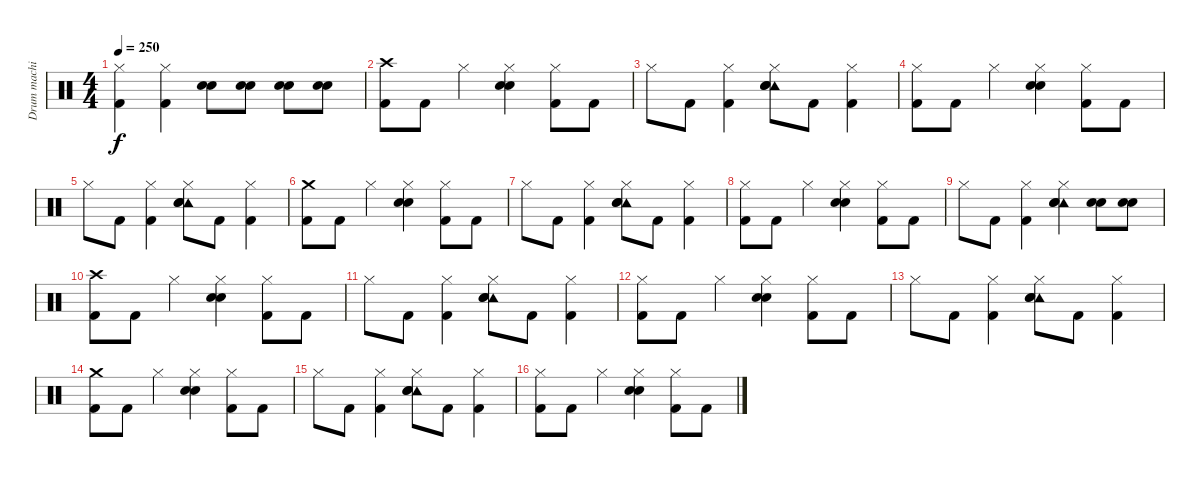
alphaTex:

\track ("Drum machine" "Drum machi") {instrument percussion}
\staff {score}
\articulation defaults
\ts (4 4)
\tempo 250
\clef neutral
\ks c
("Hi-Hat (closed)" "Kick (hit) 2").4{dy f} ("Hi-Hat (closed)" "Kick (hit) 2").4 ("Snare (hit) 2" "Electric Snare (hit)").8 ("Snare (hit) 2" "Electric Snare (hit)").8 ("Snare (hit) 2" "Electric Snare (hit)").8 ("Snare (hit) 2" "Electric Snare (hit)").8 |
("Crash high (hit)" "Kick (hit) 2").8 "Kick (hit) 2".8 "Hi-Hat (closed)".4 ("Hi-Hat (closed)" "Electric Snare (hit)" "Snare (hit) 2").4 ("Hi-Hat (closed)" "Kick (hit) 2").8 "Kick (hit) 2".8 |
"Hi-Hat (closed)".8 "Kick (hit) 2".8 ("Hi-Hat (closed)" "Kick (hit) 2").4 ("Tambourine (hit)" "Hi-Hat (closed)" "Electric Snare (hit)" "Snare (hit) 2").8 "Kick (hit) 2".8 ("Hi-Hat (closed)" "Kick (hit) 2").4 |
("Hi-Hat (closed)" "Kick (hit) 2").8 "Kick (hit) 2".8 "Hi-Hat (closed)".4 ("Hi-Hat (closed)" "Electric Snare (hit)" "Snare (hit) 2").4 ("Hi-Hat (closed)" "Kick (hit) 2").8 "Kick (hit) 2".8 |
"Hi-Hat (closed)".8 "Kick (hit) 2".8 ("Hi-Hat (closed)" "Kick (hit) 2").4 ("Tambourine (hit)" "Hi-Hat (closed)" "Electric Snare (hit)" "Snare (hit) 2").8 "Kick (hit) 2".8 ("Hi-Hat (closed)" "Kick (hit) 2").4 |
("Crash medium (hit)" "Kick (hit) 2").8 "Kick (hit) 2".8 "Hi-Hat (closed)".4 ("Hi-Hat (closed)" "Electric Snare (hit)" "Snare (hit) 2").4 ("Hi-Hat (closed)" "Kick (hit) 2").8 "Kick (hit) 2".8 |
"Hi-Hat (closed)".8 "Kick (hit) 2".8 ("Hi-Hat (closed)" "Kick (hit) 2").4 ("Tambourine (hit)" "Hi-Hat (closed)" "Electric Snare (hit)" "Snare (hit) 2").8 "Kick (hit) 2".8 ("Hi-Hat (closed)" "Kick (hit) 2").4 |
("Hi-Hat (closed)" "Kick (hit) 2").8 "Kick (hit) 2".8 "Hi-Hat (closed)".4 ("Hi-Hat (closed)" "Electric Snare (hit)" "Snare (hit) 2").4 ("Hi-Hat (closed)" "Kick (hit) 2").8 "Kick (hit) 2".8 |
"Hi-Hat (closed)".8 "Kick (hit) 2".8 ("Hi-Hat (closed)" "Kick (hit) 2").4 ("Tambourine (hit)" "Hi-Hat (closed)" "Electric Snare (hit)" "Snare (hit) 2").4 ("Electric Snare (hit)" "Snare (hit) 2").8 ("Electric Snare (hit)" "Snare (hit) 2").8 |
("Crash high (hit)" "Kick (hit) 2").8 "Kick (hit) 2".8 "Hi-Hat (closed)".4 ("Hi-Hat (closed)" "Electric Snare (hit)" "Snare (hit) 2").4 ("Hi-Hat (closed)" "Kick (hit) 2").8 "Kick (hit) 2".8 |
"Hi-Hat (closed)".8 "Kick (hit) 2".8 ("Hi-Hat (closed)" "Kick (hit) 2").4 ("Tambourine (hit)" "Hi-Hat (closed)" "Electric Snare (hit)" "Snare (hit) 2").8 "Kick (hit) 2".8 ("Hi-Hat (closed)" "Kick (hit) 2").4 |
("Hi-Hat (closed)" "Kick (hit) 2").8 "Kick (hit) 2".8 "Hi-Hat (closed)".4 ("Hi-Hat (closed)" "Electric Snare (hit)" "Snare (hit) 2").4 ("Hi-Hat (closed)" "Kick (hit) 2").8 "Kick (hit) 2".8 |
"Hi-Hat (closed)".8 "Kick (hit) 2".8 ("Hi-Hat (closed)" "Kick (hit) 2").4 ("Tambourine (hit)" "Hi-Hat (closed)" "Electric Snare (hit)" "Snare (hit) 2").8 "Kick (hit) 2".8 ("Hi-Hat (closed)" "Kick (hit) 2").4 |
("Crash medium (hit)" "Kick (hit) 2").8 "Kick (hit) 2".8 "Hi-Hat (closed)".4 ("Hi-Hat (closed)" "Electric Snare (hit)" "Snare (hit) 2").4 ("Hi-Hat (closed)" "Kick (hit) 2").8 "Kick (hit) 2".8 |
"Hi-Hat (closed)".8 "Kick (hit) 2".8 ("Hi-Hat (closed)" "Kick (hit) 2").4 ("Tambourine (hit)" "Hi-Hat (closed)" "Electric Snare (hit)" "Snare (hit) 2").8 "Kick (hit) 2".8 ("Hi-Hat (closed)" "Kick (hit) 2").4 |
("Hi-Hat (closed)" "Kick (hit) 2").8 "Kick (hit) 2".8 "Hi-Hat (closed)".4 ("Hi-Hat (closed)" "Electric Snare (hit)" "Snare (hit) 2").4 ("Hi-Hat (closed)" "Kick (hit) 2").8 "Kick (hit) 2".8
